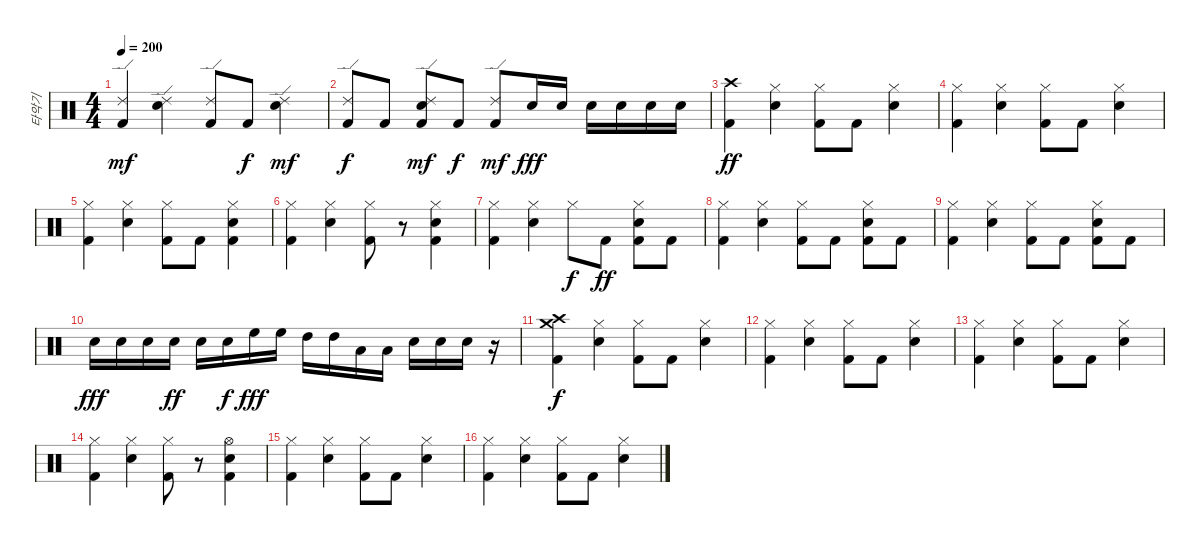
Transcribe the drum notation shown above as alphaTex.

\track ("타악기" "타악기") {instrument percussion}
\staff {score}
\articulation defaults
\ts (4 4)
\tempo 200
\clef neutral
\ks c
("Ride (edge) 2" "Kick (hit) 2").4{dy mf} ("Ride (edge) 2" "Snare (hit) 2").4 ("Ride (edge) 2" "Kick (hit) 2").8 "Kick (hit) 2".8{dy f} ("Ride (edge) 2" "Snare (hit) 2").4{dy mf} |
("Ride (edge) 2" "Kick (hit) 2").8{dy f} "Kick (hit) 2".8 ("Ride (edge) 2" "Snare (hit) 2" "Kick (hit) 2").8{dy mf} "Kick (hit) 2".8{dy f} ("Ride (edge) 2" "Kick (hit) 2").8{dy mf} "Snare (hit) 2".16{dy fff} "Snare (hit) 2".16 "Snare (hit) 2".16 "Snare (hit) 2".16 "Snare (hit) 2".16 "Snare (hit) 2".16 |
("Crash high (hit)" "Kick (hit) 2").4{dy ff} ("Hi-Hat (closed)" "Snare (hit) 2").4 ("Hi-Hat (closed)" "Kick (hit) 2").8 "Kick (hit) 2".8 ("Hi-Hat (closed)" "Snare (hit) 2").4 |
("Hi-Hat (closed)" "Kick (hit) 2").4 ("Hi-Hat (closed)" "Snare (hit) 2").4 ("Hi-Hat (closed)" "Kick (hit) 2").8 "Kick (hit) 2".8 ("Hi-Hat (closed)" "Snare (hit) 2").4 |
("Hi-Hat (closed)" "Kick (hit) 2").4 ("Hi-Hat (closed)" "Snare (hit) 2").4 ("Hi-Hat (closed)" "Kick (hit) 2").8 "Kick (hit) 2".8 ("Hi-Hat (closed)" "Snare (hit) 2" "Kick (hit) 2").4 |
("Hi-Hat (closed)" "Kick (hit) 2").4 ("Hi-Hat (closed)" "Snare (hit) 2").4 ("Hi-Hat (closed)" "Kick (hit) 2").8 r.8 ("Hi-Hat (closed)" "Snare (hit) 2" "Kick (hit) 2").4 |
("Hi-Hat (closed)" "Kick (hit) 2").4 ("Hi-Hat (closed)" "Snare (hit) 2").4 "Hi-Hat (closed)".8{dy f} "Kick (hit) 2".8{dy ff} ("Hi-Hat (closed)" "Snare (hit) 2" "Kick (hit) 2").8 "Kick (hit) 2".8 |
("Hi-Hat (closed)" "Kick (hit) 2").4 ("Hi-Hat (closed)" "Snare (hit) 2").4 ("Hi-Hat (closed)" "Kick (hit) 2").8 "Kick (hit) 2".8 ("Hi-Hat (closed)" "Snare (hit) 2" "Kick (hit) 2").8 "Kick (hit) 2".8 |
("Hi-Hat (closed)" "Kick (hit) 2").4 ("Hi-Hat (closed)" "Snare (hit) 2").4 ("Hi-Hat (closed)" "Kick (hit) 2").8 "Kick (hit) 2".8 ("Hi-Hat (closed)" "Snare (hit) 2" "Kick (hit) 2").8 "Kick (hit) 2".8 |
"Snare (hit) 2".16{dy fff} "Snare (hit) 2".16 "Snare (hit) 2".16 "Snare (hit) 2".16{dy ff} "Snare (hit) 2".16 "Snare (hit) 2".16{dy f} "High Floor Tom (hit)".16{dy fff} "High Floor Tom (hit)".16 "High Tom (hit)".16 "High Tom (hit)".16 "Low Tom (hit)".16 "Low Tom (hit)".16 "Snare (hit) 2".16 "Snare (hit) 2".16 "Snare (hit) 2".16 r.16 |
("Crash high (hit)" "Crash medium (hit)" "Kick (hit) 2").4{dy f} ("Hi-Hat (closed)" "Snare (hit) 2").4 ("Hi-Hat (closed)" "Kick (hit) 2").8 "Kick (hit) 2".8 ("Hi-Hat (closed)" "Snare (hit) 2").4 |
("Hi-Hat (closed)" "Kick (hit) 2").4 ("Hi-Hat (closed)" "Snare (hit) 2").4 ("Hi-Hat (closed)" "Kick (hit) 2").8 "Kick (hit) 2".8 ("Hi-Hat (closed)" "Snare (hit) 2").4 |
("Hi-Hat (closed)" "Kick (hit) 2").4 ("Hi-Hat (closed)" "Snare (hit) 2").4 ("Hi-Hat (closed)" "Kick (hit) 2").8 "Kick (hit) 2".8 ("Hi-Hat (closed)" "Snare (hit) 2").4 |
("Hi-Hat (closed)" "Kick (hit) 2").4 ("Hi-Hat (closed)" "Snare (hit) 2").4 ("Hi-Hat (closed)" "Kick (hit) 2").8 r.8 ("Hi-Hat (open)" "Snare (hit) 2" "Kick (hit) 2").4 |
("Hi-Hat (closed)" "Kick (hit) 2").4 ("Hi-Hat (closed)" "Snare (hit) 2").4 ("Hi-Hat (closed)" "Kick (hit) 2").8 "Kick (hit) 2".8 ("Hi-Hat (closed)" "Snare (hit) 2").4 |
("Hi-Hat (closed)" "Kick (hit) 2").4 ("Hi-Hat (closed)" "Snare (hit) 2").4 ("Hi-Hat (closed)" "Kick (hit) 2").8 "Kick (hit) 2".8 ("Hi-Hat (closed)" "Snare (hit) 2").4
